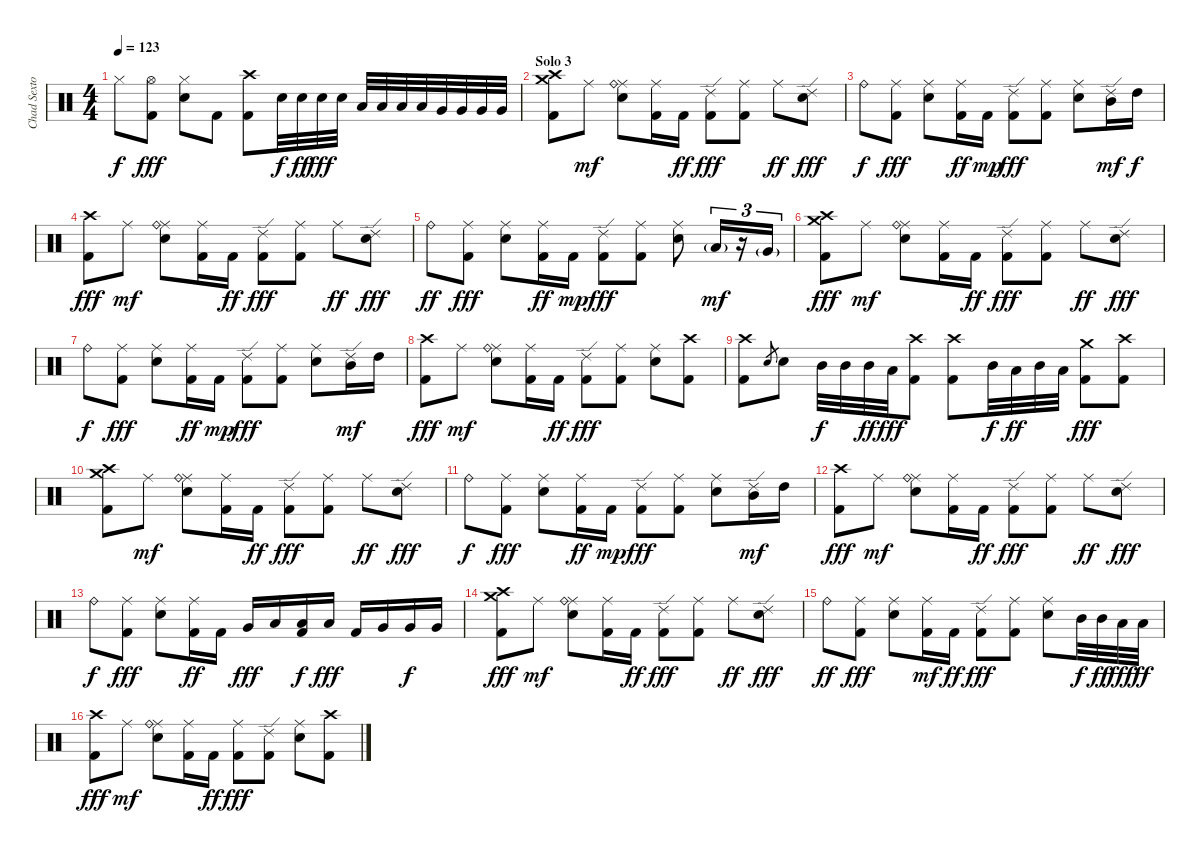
\track ("Chad Sexton (Drums)" "Chad Sexto") {instrument percussion}
\staff {score}
\articulation defaults
\ts (4 4)
\tempo 123
\clef neutral
\ks c "Hi-Hat (closed)".8{dy f}
("Hi-Hat (open)" "Kick (hit) 2").8{dy fff} ("Hi-Hat (closed)" "Electric Snare (hit)").8 "Kick (hit) 2".8 ("Crash high (hit)" "Kick (hit) 2").8 "Electric Snare (hit)".32{dy f} "Electric Snare (hit)".32{dy ff} "Electric Snare (hit)".32{dy fff} "Electric Snare (hit)".32 "Low Tom (hit)".32 "Low Tom (hit)".32 "Low Tom (hit)".32 "Low Tom (hit)".32 "Very Low Tom (hit)".32 "Very Low Tom (hit)".32 "Very Low Tom (hit)".32 "Very Low Tom (hit)".32 |
\section ("" "Solo 3")
("Crash medium (hit)" "Kick (hit) 2" "Crash high (hit)").8{volume 11} "Ride (middle)".8{dy mf} ("Ride (middle)" "Electric Snare (hit)" "Ride (bell)").8 ("Ride (middle)" "Kick (hit) 2").16 "Kick (hit) 2".16{dy ff} ("Ride (edge) 2" "Kick (hit) 2").8{dy fff} ("Ride (middle)" "Kick (hit) 2").8 "Ride (middle)".8{dy ff} ("Ride (edge) 2" "Electric Snare (hit)").8{dy fff} |
"Ride (bell)".8{dy f} ("Ride (middle)" "Kick (hit) 2").8{dy fff} ("Ride (middle)" "Electric Snare (hit)").8 ("Ride (middle)" "Kick (hit) 2").16{dy ff} "Kick (hit) 2".16{dy mp} ("Ride (edge) 2" "Kick (hit) 2").8{dy fff} ("Ride (middle)" "Kick (hit) 2").8 ("Ride (middle)" "Electric Snare (hit)").8 ("Ride (edge) 2" "Mid Tom (hit)").16{dy mf} "High Tom (hit)".16{dy f} |
("Kick (hit) 2" "Crash high (hit)").8{dy fff} "Ride (middle)".8{dy mf} ("Ride (middle)" "Electric Snare (hit)" "Ride (bell)").8 ("Ride (middle)" "Kick (hit) 2").16 "Kick (hit) 2".16{dy ff} ("Ride (edge) 2" "Kick (hit) 2").8{dy fff} ("Ride (middle)" "Kick (hit) 2").8 "Ride (middle)".8{dy ff} ("Ride (edge) 2" "Electric Snare (hit)").8{dy fff} |
"Ride (bell)".8{dy ff} ("Ride (middle)" "Kick (hit) 2").8{dy fff} ("Ride (middle)" "Electric Snare (hit)").8 ("Ride (middle)" "Kick (hit) 2").16{dy ff} "Kick (hit) 2".16{dy mp} ("Ride (edge) 2" "Kick (hit) 2").8{dy fff} ("Ride (middle)" "Kick (hit) 2").8 ("Ride (middle)" "Electric Snare (hit)").8 "Low Tom (hit)"{g}.16{tu (3 2) dy mf} r.16{tu (3 2)} "Very Low Tom (hit)"{g}.16{tu (3 2)} |
("Crash medium (hit)" "Kick (hit) 2" "Crash high (hit)").8{dy fff} "Ride (middle)".8{dy mf} ("Ride (middle)" "Electric Snare (hit)" "Ride (bell)").8 ("Ride (middle)" "Kick (hit) 2").16 "Kick (hit) 2".16{dy ff} ("Ride (edge) 2" "Kick (hit) 2").8{dy fff} ("Ride (middle)" "Kick (hit) 2").8 "Ride (middle)".8{dy ff} ("Ride (edge) 2" "Electric Snare (hit)").8{dy fff} |
"Ride (bell)".8{dy f} ("Ride (middle)" "Kick (hit) 2").8{dy fff} ("Ride (middle)" "Electric Snare (hit)").8 ("Ride (middle)" "Kick (hit) 2").16{dy ff} "Kick (hit) 2".16{dy mp} ("Ride (edge) 2" "Kick (hit) 2").8{dy fff} ("Ride (middle)" "Kick (hit) 2").8 ("Ride (middle)" "Electric Snare (hit)").8 ("Ride (edge) 2" "Mid Tom (hit)").16{dy mf} "High Tom (hit)".16 |
("Kick (hit) 2" "Crash high (hit)").8{dy fff} "Ride (middle)".8{dy mf} ("Ride (middle)" "Electric Snare (hit)" "Ride (bell)").8 ("Ride (middle)" "Kick (hit) 2").16 "Kick (hit) 2".16{dy ff} ("Ride (edge) 2" "Kick (hit) 2").8{dy fff} ("Ride (middle)" "Kick (hit) 2").8 ("Ride (middle)" "Electric Snare (hit)").8 ("Crash high (hit)" "Kick (hit) 2").8 |
("Crash high (hit)" "Kick (hit) 2").8 "Electric Snare (hit)".8{gr} "Electric Snare (hit)".8 "Mid Tom (hit)".32{dy f} "Mid Tom (hit)".32 "Mid Tom (hit)".32{dy ff} "Low Tom (hit)".32{dy fff} ("Crash high (hit)" "Kick (hit) 2").8 ("Crash high (hit)" "Kick (hit) 2").8 "Mid Tom (hit)".32{dy f} "Low Tom (hit)".32{dy ff} "Mid Tom (hit)".32 "Low Tom (hit)".32 ("Crash medium (hit)" "Kick (hit) 2").8{dy fff} ("Crash high (hit)" "Kick (hit) 2").8 |
("Crash medium (hit)" "Kick (hit) 2" "Crash high (hit)").8{volume 10} "Ride (middle)".8{dy mf} ("Ride (middle)" "Electric Snare (hit)" "Ride (bell)").8 ("Ride (middle)" "Kick (hit) 2").16 "Kick (hit) 2".16{dy ff} ("Ride (edge) 2" "Kick (hit) 2").8{dy fff} ("Ride (middle)" "Kick (hit) 2").8 "Ride (middle)".8{dy ff} ("Ride (edge) 2" "Electric Snare (hit)").8{dy fff} |
"Ride (bell)".8{dy f} ("Ride (middle)" "Kick (hit) 2").8{dy fff} ("Ride (middle)" "Electric Snare (hit)").8 ("Ride (middle)" "Kick (hit) 2").16{dy ff} "Kick (hit) 2".16{dy mp} ("Ride (edge) 2" "Kick (hit) 2").8{dy fff} ("Ride (middle)" "Kick (hit) 2").8 ("Ride (middle)" "Electric Snare (hit)").8 ("Ride (edge) 2" "Mid Tom (hit)").16{dy mf} "High Tom (hit)".16 |
("Kick (hit) 2" "Crash high (hit)").8{dy fff} "Ride (middle)".8{dy mf} ("Ride (middle)" "Electric Snare (hit)" "Ride (bell)").8 ("Ride (middle)" "Kick (hit) 2").16 "Kick (hit) 2".16{dy ff} ("Ride (edge) 2" "Kick (hit) 2").8{dy fff} ("Ride (middle)" "Kick (hit) 2").8 "Ride (middle)".8{dy ff} ("Ride (edge) 2" "Electric Snare (hit)").8{dy fff} |
"Ride (bell)".8{dy f} ("Ride (middle)" "Kick (hit) 2").8{dy fff} ("Ride (middle)" "Electric Snare (hit)").8 ("Ride (middle)" "Kick (hit) 2").16{dy ff} "Kick (hit) 2".16 "Very Low Tom (hit)".16{dy fff} "Low Tom (hit)".16 ("Kick (hit) 2" "Low Tom (hit)").16{dy f} "Low Tom (hit)".16{dy fff} "Kick (hit) 2".16 "Very Low Tom (hit)".16 "Very Low Tom (hit)".16{dy f} "Very Low Tom (hit)".16 |
("Crash medium (hit)" "Kick (hit) 2" "Crash high (hit)").8{dy fff} "Ride (middle)".8{dy mf} ("Ride (middle)" "Electric Snare (hit)" "Ride (bell)").8 ("Ride (middle)" "Kick (hit) 2").16 "Kick (hit) 2".16{dy ff} ("Ride (edge) 2" "Kick (hit) 2").8{dy fff} ("Ride (middle)" "Kick (hit) 2").8 "Ride (middle)".8{dy ff} ("Ride (edge) 2" "Electric Snare (hit)").8{dy fff} |
"Ride (bell)".8{dy ff} ("Ride (middle)" "Kick (hit) 2").8{dy fff} ("Ride (middle)" "Electric Snare (hit)").8 ("Ride (middle)" "Kick (hit) 2").16{dy mf} "Kick (hit) 2".16{dy ff} ("Ride (edge) 2" "Kick (hit) 2").8{dy fff} ("Ride (middle)" "Kick (hit) 2").8 ("Ride (middle)" "Electric Snare (hit)").8 "Mid Tom (hit)".32{dy f} "Mid Tom (hit)".32{dy ff} "Low Tom (hit)".32{dy fff} "Low Tom (hit)".32{dy ff} |
("Kick (hit) 2" "Crash high (hit)").8{dy fff} "Ride (middle)".8{dy mf} ("Ride (middle)" "Electric Snare (hit)" "Ride (bell)").8 ("Ride (middle)" "Kick (hit) 2").16 "Kick (hit) 2".16{dy ff} ("Ride (middle)" "Kick (hit) 2").8{dy fff} ("Ride (edge) 2" "Kick (hit) 2").8 ("Ride (middle)" "Electric Snare (hit)").8 ("Crash high (hit)" "Kick (hit) 2").8
